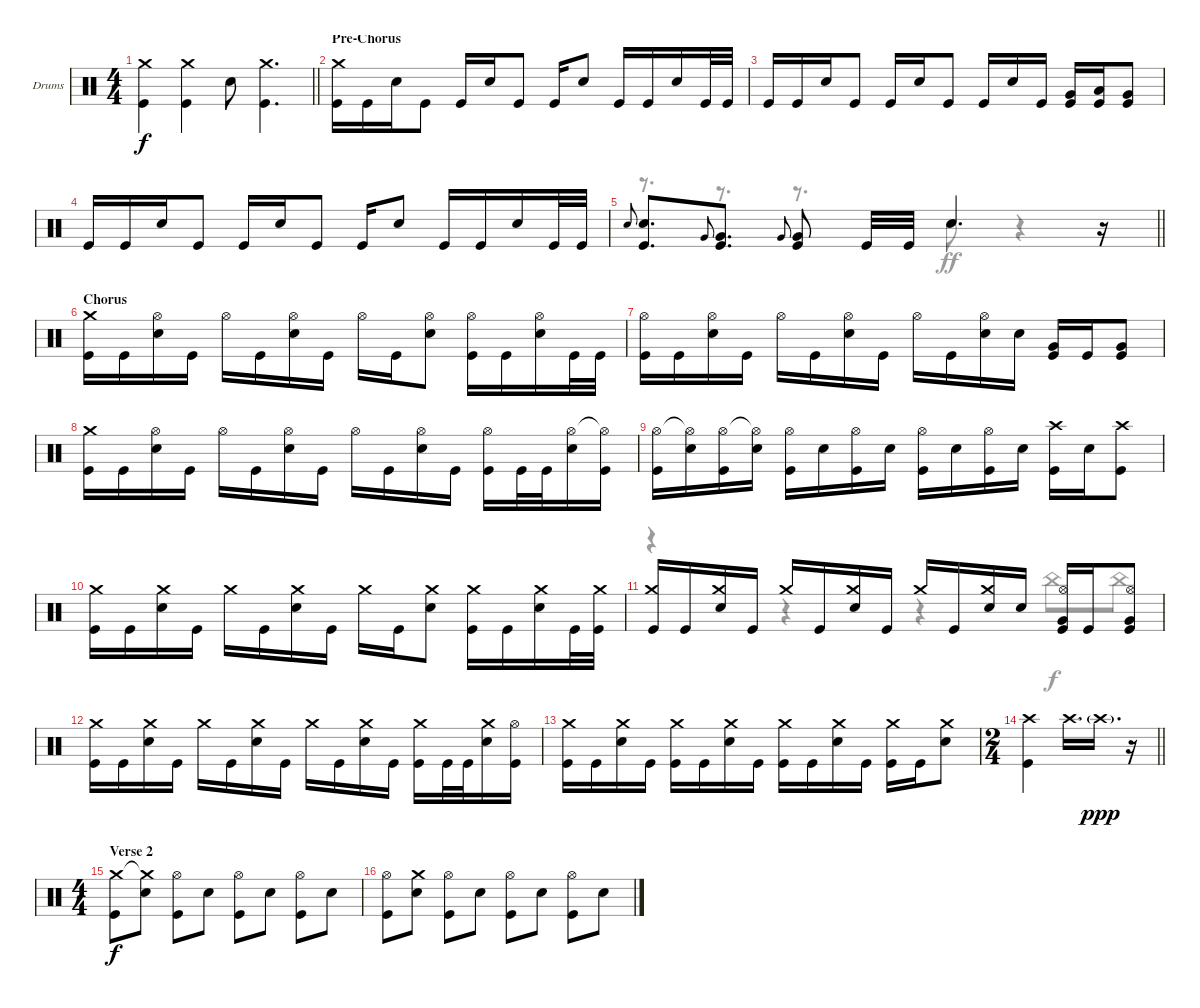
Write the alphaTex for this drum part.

\bracketExtendMode groupsimilarinstruments
\firstSystemTrackNameOrientation horizontal
\otherSystemsTrackNameOrientation horizontal
\track ("Drumkit" "Drums") {instrument percussion}
\staff {score}
\articulation defaults
\voice
\ts (4 4)
\tempo (188 hide)
\clef neutral
\barLineRight lightlight
\ks c
("Crash medium (hit)" "Kick (hit)").4{dy f} ("Crash medium (hit)" "Kick (hit)").4 "Snare (hit) 2".8 ("Crash medium (hit)" "Kick (hit)").4{d} |
\section ("" "Pre-Chorus")
\tempo (94 hide)
("Crash medium (hit)" "Kick (hit)").16 "Kick (hit)".16 "Snare (hit) 2".16 "Kick (hit)".8 "Kick (hit)".16 "Snare (hit) 2".16 "Kick (hit)".8 "Kick (hit)".16 "Snare (hit) 2".8 "Kick (hit)".16 "Kick (hit)".16 "Snare (hit) 2".16 "Kick (hit)".32 "Kick (hit)".32 |
"Kick (hit)".16 "Kick (hit)".16 "Snare (hit) 2".16 "Kick (hit)".8 "Kick (hit)".16 "Snare (hit) 2".16 "Kick (hit)".8 "Kick (hit)".16 "Snare (hit) 2".16 "Kick (hit)".16 ("Very Low Tom (hit)" "Kick (hit)").16 ("Low Tom (hit)" "Kick (hit)").16 ("Very Low Tom (hit)" "Kick (hit)").8 |
"Kick (hit)".16 "Kick (hit)".16 "Snare (hit) 2".16 "Kick (hit)".8 "Kick (hit)".16 "Snare (hit) 2".16 "Kick (hit)".8 "Kick (hit)".16 "Snare (hit) 2".8 "Kick (hit)".16 "Kick (hit)".16 "Snare (hit) 2".16 "Kick (hit)".32 "Kick (hit)".32 |
\barLineRight lightlight "Snare (hit) 2".8{gr onbeat}
("Snare (hit) 2" "Kick (hit)").8{d} "Very Low Tom (hit)".8{gr onbeat} ("Very Low Tom (hit)" "Kick (hit)").8{d} "Very Low Tom (hit)".8{gr onbeat} ("Very Low Tom (hit)" "Kick (hit)").8 "Kick (hit)".32 "Kick (hit)".32 "Snare (hit) 2".4{d} r.16 |
\section ("" "Chorus")
("Crash medium (hit)" "Kick (hit)").16 "Kick (hit)".16 ("Hi-Hat (open)" "Snare (hit) 2").16 "Kick (hit)".16 "Hi-Hat (open)".16 "Kick (hit)".16 ("Hi-Hat (open)" "Snare (hit) 2").16 "Kick (hit)".16 "Hi-Hat (open)".16 "Kick (hit)".16 ("Hi-Hat (open)" "Snare (hit) 2").8 ("Hi-Hat (open)" "Kick (hit)").16 "Kick (hit)".16 ("Hi-Hat (open)" "Snare (hit) 2").16 "Kick (hit)".32 "Kick (hit)".32 |
("Hi-Hat (open)" "Kick (hit)").16 "Kick (hit)".16 ("Hi-Hat (open)" "Snare (hit) 2").16 "Kick (hit)".16 "Hi-Hat (open)".16 "Kick (hit)".16 ("Hi-Hat (open)" "Snare (hit) 2").16 "Kick (hit)".16 "Hi-Hat (open)".16 "Kick (hit)".16 ("Hi-Hat (open)" "Snare (hit) 2").16 "Snare (hit) 2".16 ("Very Low Tom (hit)" "Kick (hit)").16 "Kick (hit)".16 ("Very Low Tom (hit)" "Kick (hit)").8 |
("Crash medium (hit)" "Kick (hit)").16 "Kick (hit)".16 ("Hi-Hat (open)" "Snare (hit) 2").16 "Kick (hit)".16 "Hi-Hat (open)".16 "Kick (hit)".16 ("Hi-Hat (open)" "Snare (hit) 2").16 "Kick (hit)".16 "Hi-Hat (open)".16 "Kick (hit)".16 ("Hi-Hat (open)" "Snare (hit) 2").16 "Kick (hit)".16 ("Hi-Hat (open)" "Kick (hit)").16 "Kick (hit)".32 "Kick (hit)".32 ("Hi-Hat (open)" "Snare (hit) 2").16 ("Hi-Hat (open)"{t} "Kick (hit)").16 |
("Hi-Hat (open)" "Kick (hit)").16 ("Hi-Hat (open)"{t} "Snare (hit) 2").16 ("Hi-Hat (open)" "Kick (hit)").16 ("Hi-Hat (open)"{t} "Snare (hit) 2").16 ("Hi-Hat (open)" "Kick (hit)").16 "Snare (hit) 2".16 ("Hi-Hat (open)" "Kick (hit)").16 "Snare (hit) 2".16 ("Hi-Hat (open)" "Kick (hit)").16 "Snare (hit) 2".16 ("Hi-Hat (open)" "Kick (hit)").16 "Snare (hit) 2".16 ("Crash high (hit)" "Kick (hit)").16 "Snare (hit) 2".16 ("Crash high (hit)" "Kick (hit)").8 |
("Crash medium (hit)" "Kick (hit)").16 "Kick (hit)".16 ("Crash medium (hit)" "Snare (hit) 2").16 "Kick (hit)".16 "Crash medium (hit)".16 "Kick (hit)".16 ("Crash medium (hit)" "Snare (hit) 2").16 "Kick (hit)".16 "Crash medium (hit)".16 "Kick (hit)".16 ("Crash medium (hit)" "Snare (hit) 2").8 ("Crash medium (hit)" "Kick (hit)").16 "Kick (hit)".16 ("Crash medium (hit)" "Snare (hit) 2").16 "Kick (hit)".32 ("Crash medium (hit)" "Kick (hit)").32 |
("Crash medium (hit)" "Kick (hit)").16 "Kick (hit)".16 ("Crash medium (hit)" "Snare (hit) 2").16 "Kick (hit)".16 "Crash medium (hit)".16 "Kick (hit)".16 ("Crash medium (hit)" "Snare (hit) 2").16 "Kick (hit)".16 "Crash medium (hit)".16 "Kick (hit)".16 ("Crash medium (hit)" "Snare (hit) 2").16 "Snare (hit) 2".16 ("Hi-Hat (open)" "Very Low Tom (hit)" "Kick (hit)").16 "Kick (hit)".16 ("Hi-Hat (open)" "Very Low Tom (hit)" "Kick (hit)").8 |
("Crash medium (hit)" "Kick (hit)").16 "Kick (hit)".16 ("Crash medium (hit)" "Snare (hit) 2").16 "Kick (hit)".16 "Crash medium (hit)".16 "Kick (hit)".16 ("Crash medium (hit)" "Snare (hit) 2").16 "Kick (hit)".16 "Crash medium (hit)".16 "Kick (hit)".16 ("Crash medium (hit)" "Snare (hit) 2").16 "Kick (hit)".16 ("Crash medium (hit)" "Kick (hit)").16 "Kick (hit)".32 "Kick (hit)".32 ("Crash medium (hit)" "Snare (hit) 2").16 ("Hi-Hat (open)" "Kick (hit)").16 |
("Crash medium (hit)" "Kick (hit)").16 "Kick (hit)".16 ("Crash medium (hit)" "Snare (hit) 2").16 "Kick (hit)".16 ("Crash medium (hit)" "Kick (hit)").16 "Kick (hit)".16 ("Crash medium (hit)" "Snare (hit) 2").16 "Kick (hit)".16 ("Crash medium (hit)" "Kick (hit)").16 "Kick (hit)".16 ("Crash medium (hit)" "Snare (hit) 2").16 "Kick (hit)".16 ("Crash medium (hit)" "Kick (hit)").16 "Kick (hit)".16 ("Crash medium (hit)" "Snare (hit) 2").8 |
\ts (2 4)
\beaming (8 2 2 2 2)
\tempo (204 1 hide)
\barLineRight lightlight
("Crash high (hit)" "Kick (hit)").4 "Crash high (hit)".16{d} "Crash high (hit)"{g}.16{d dy ppp} r.16 |
\ts (4 4)
\beaming (8 2 2 2 2)
\section ("" "Verse 2")
\tempo (188 hide)
("Crash medium (hit)" "Kick (hit)").8{dy f} ("Crash medium (hit)"{t} "Snare (hit) 2").8 ("Hi-Hat (open)" "Kick (hit)").8 "Snare (hit) 2".8 ("Hi-Hat (open)" "Kick (hit)").8 "Snare (hit) 2".8 ("Hi-Hat (open)" "Kick (hit)").8 "Snare (hit) 2".8 |
("Hi-Hat (open)" "Kick (hit)").8 ("Crash medium (hit)" "Snare (hit) 2").8 ("Hi-Hat (open)" "Kick (hit)").8 "Snare (hit) 2".8 ("Hi-Hat (open)" "Kick (hit)").8 "Snare (hit) 2".8 ("Hi-Hat (open)" "Kick (hit)").8 "Snare (hit) 2".8
\voice
\clef neutral
\ottava regular
\simile none
\barLineRight lightlight
\ks c
|
|
|
|
\barLineRight lightlight
r.8{d} r.8{d} r.8{d} "Snare (hit) 2".8{dy ff} r.4 r.16 |
|
|
|
|
|
r.4 r.4 r.4 "China (hit)".8{dy f} "China (hit)".8 |
|
|
\barLineRight lightlight
|
|
